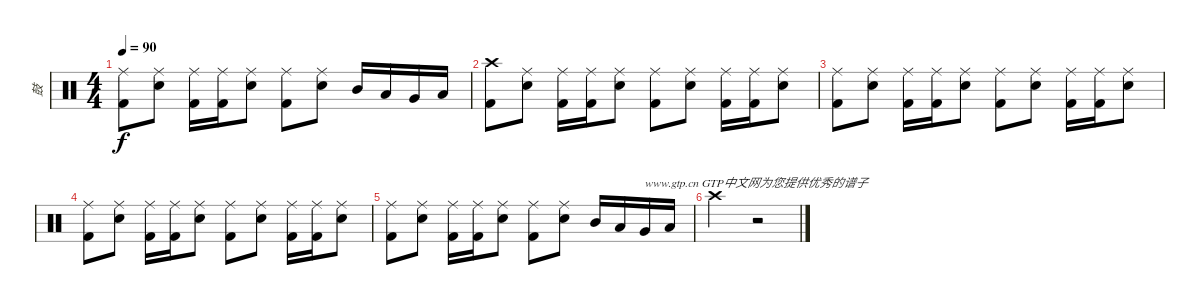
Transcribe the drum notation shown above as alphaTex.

\track ("鼓" "鼓") {instrument percussion}
\staff {score}
\articulation defaults
\ts (4 4)
\tempo 90
\clef neutral
\ks c
("Kick (hit) 2" "Ride (middle)").8{dy f} ("Electric Snare (hit)" "Ride (middle)").8 ("Kick (hit) 2" "Ride (middle)").16 ("Kick (hit) 2" "Ride (middle)").16 ("Electric Snare (hit)" "Ride (middle)").8 ("Kick (hit) 2" "Ride (middle)").8 ("Electric Snare (hit)" "Ride (middle)").8 "Mid Tom (hit)".16 "Low Tom (hit)".16 "Very Low Tom (hit)".16 "Low Floor Tom (hit)".16 |
("Kick (hit) 2" "Crash high (hit)").8 ("Electric Snare (hit)" "Ride (middle)").8 ("Kick (hit) 2" "Ride (middle)").16 ("Kick (hit) 2" "Ride (middle)").16 ("Electric Snare (hit)" "Ride (middle)").8 ("Kick (hit) 2" "Ride (middle)").8 ("Electric Snare (hit)" "Ride (middle)").8 ("Kick (hit) 2" "Ride (middle)").16 ("Kick (hit) 2" "Ride (middle)").16 ("Electric Snare (hit)" "Ride (middle)").8 |
("Kick (hit) 2" "Ride (middle)").8 ("Electric Snare (hit)" "Ride (middle)").8 ("Kick (hit) 2" "Ride (middle)").16 ("Kick (hit) 2" "Ride (middle)").16 ("Electric Snare (hit)" "Ride (middle)").8 ("Kick (hit) 2" "Ride (middle)").8 ("Electric Snare (hit)" "Ride (middle)").8 ("Kick (hit) 2" "Ride (middle)").16 ("Kick (hit) 2" "Ride (middle)").16 ("Electric Snare (hit)" "Ride (middle)").8 |
("Kick (hit) 2" "Ride (middle)").8 ("Electric Snare (hit)" "Ride (middle)").8 ("Kick (hit) 2" "Ride (middle)").16 ("Kick (hit) 2" "Ride (middle)").16 ("Electric Snare (hit)" "Ride (middle)").8 ("Kick (hit) 2" "Ride (middle)").8 ("Electric Snare (hit)" "Ride (middle)").8 ("Kick (hit) 2" "Ride (middle)").16 ("Kick (hit) 2" "Ride (middle)").16 ("Electric Snare (hit)" "Ride (middle)").8 |
("Kick (hit) 2" "Ride (middle)").8 ("Electric Snare (hit)" "Ride (middle)").8 ("Kick (hit) 2" "Ride (middle)").16 ("Kick (hit) 2" "Ride (middle)").16 ("Electric Snare (hit)" "Ride (middle)").8 ("Kick (hit) 2" "Ride (middle)").8 ("Electric Snare (hit)" "Ride (middle)").8 "Mid Tom (hit)".16 "Low Tom (hit)".16 "Very Low Tom (hit)".16{txt "www.gtp.cn GTP中文网为您提供优秀的谱子"} "Low Floor Tom (hit)".16 |
"Crash high (hit)".2 r.2
